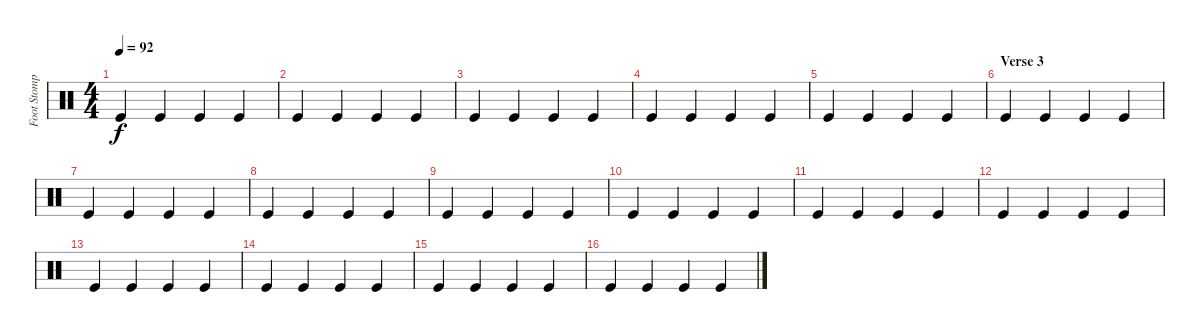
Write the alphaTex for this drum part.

\track ("Foot Stomp" "Foot Stomp") {instrument percussion}
\staff {score}
\articulation defaults
\ts (4 4)
\tempo 92
\clef neutral
\ks c "Kick (hit)".4{dy f} "Kick (hit)".4 "Kick (hit)".4 "Kick (hit)".4
|
"Kick (hit)".4 "Kick (hit)".4 "Kick (hit)".4 "Kick (hit)".4 |
"Kick (hit)".4 "Kick (hit)".4 "Kick (hit)".4 "Kick (hit)".4 |
"Kick (hit)".4 "Kick (hit)".4 "Kick (hit)".4 "Kick (hit)".4 |
"Kick (hit)".4 "Kick (hit)".4 "Kick (hit)".4 "Kick (hit)".4 |
\section ("" "Verse 3")
"Kick (hit)".4 "Kick (hit)".4 "Kick (hit)".4 "Kick (hit)".4 |
"Kick (hit)".4 "Kick (hit)".4 "Kick (hit)".4 "Kick (hit)".4 |
"Kick (hit)".4 "Kick (hit)".4 "Kick (hit)".4 "Kick (hit)".4 |
"Kick (hit)".4 "Kick (hit)".4 "Kick (hit)".4 "Kick (hit)".4 |
"Kick (hit)".4 "Kick (hit)".4 "Kick (hit)".4 "Kick (hit)".4 |
"Kick (hit)".4 "Kick (hit)".4 "Kick (hit)".4 "Kick (hit)".4 |
"Kick (hit)".4 "Kick (hit)".4 "Kick (hit)".4 "Kick (hit)".4 |
"Kick (hit)".4 "Kick (hit)".4 "Kick (hit)".4 "Kick (hit)".4 |
"Kick (hit)".4 "Kick (hit)".4 "Kick (hit)".4 "Kick (hit)".4 |
"Kick (hit)".4 "Kick (hit)".4 "Kick (hit)".4 "Kick (hit)".4 |
"Kick (hit)".4 "Kick (hit)".4 "Kick (hit)".4 "Kick (hit)".4
